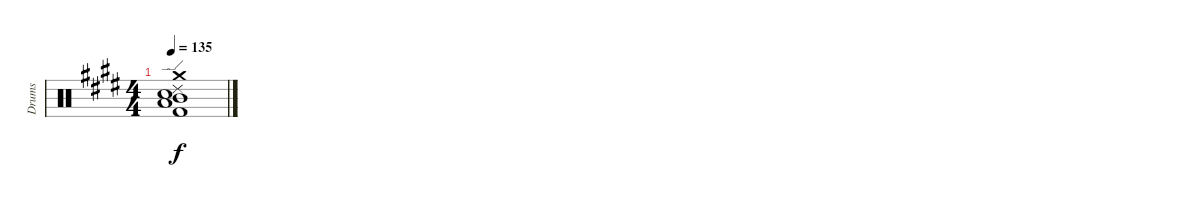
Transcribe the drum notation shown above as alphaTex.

\track ("Drums" "Drums") {instrument percussion}
\staff {score}
\articulation defaults
\ts (4 4)
\tempo 135
\clef neutral
\ks e
("Snare (hit) 2" "Low Floor Tom (hit)" "Kick (hit) 2" "Crash medium (hit)" "Ride (edge) 2" "Mid Tom (hit)").1{dy f}
